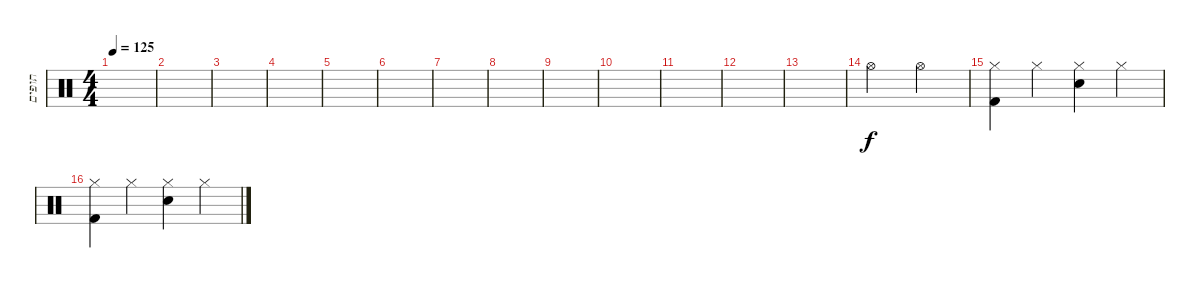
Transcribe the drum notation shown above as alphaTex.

\track ("תופים" "תופים") {instrument percussion}
\staff {score}
\articulation defaults
\ts (4 4)
\tempo 125
\clef neutral
\ks c
|
|
|
|
|
|
|
|
|
|
|
|
|
"Hi-Hat (open)".2 "Hi-Hat (open)".2 |
("Hi-Hat (closed)" "Kick (hit) 2").4 "Hi-Hat (closed)".4 ("Hi-Hat (closed)" "Snare (hit) 2").4 "Hi-Hat (closed)".4 |
("Hi-Hat (closed)" "Kick (hit) 2").4 "Hi-Hat (closed)".4 ("Hi-Hat (closed)" "Snare (hit) 2").4 "Hi-Hat (closed)".4
